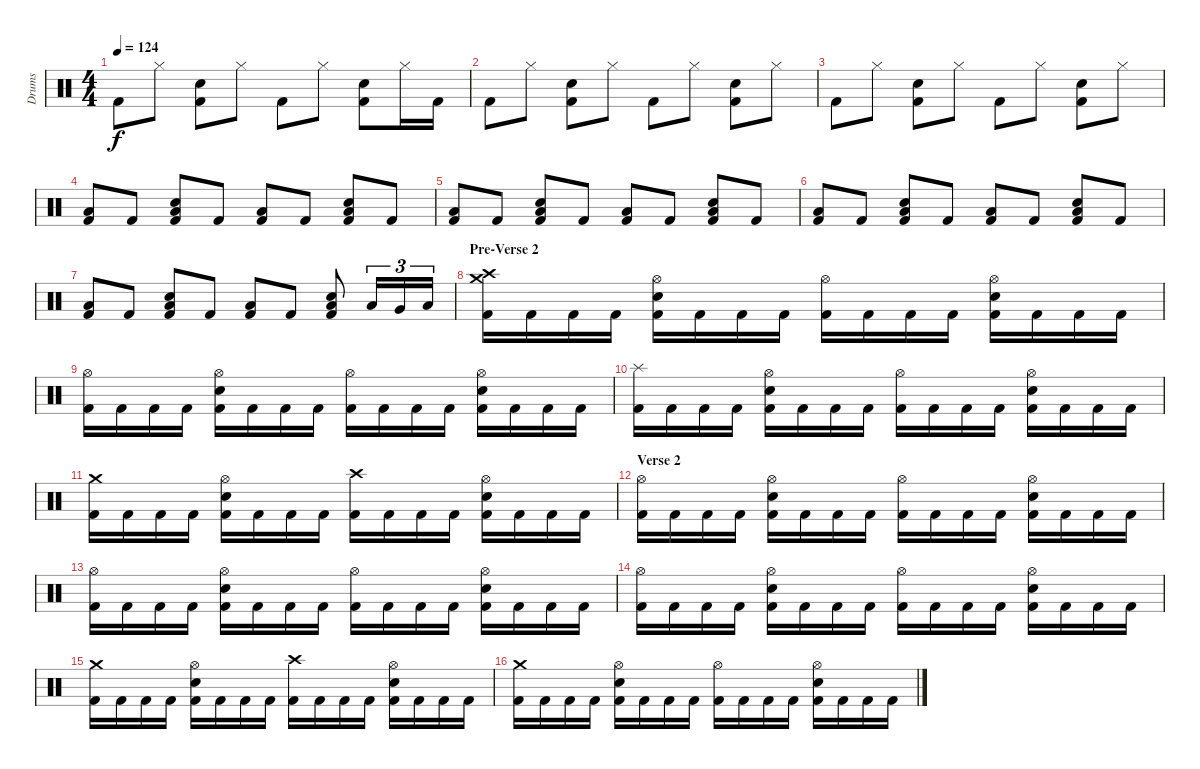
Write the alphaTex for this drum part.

\track ("Drums" "Drums") {instrument percussion}
\staff {score}
\articulation defaults
\ts (4 4)
\tempo 124
\clef neutral
\ks c "Kick (hit) 2".8{dy f} "Hi-Hat (closed)".8
("Electric Snare (hit)" "Kick (hit) 2").8 "Hi-Hat (closed)".8 "Kick (hit) 2".8 "Hi-Hat (closed)".8 ("Electric Snare (hit)" "Kick (hit) 2").8 "Hi-Hat (closed)".16 "Kick (hit) 2".16 |
"Kick (hit) 2".8 "Hi-Hat (closed)".8 ("Electric Snare (hit)" "Kick (hit) 2").8 "Hi-Hat (closed)".8 "Kick (hit) 2".8 "Hi-Hat (closed)".8 ("Electric Snare (hit)" "Kick (hit) 2").8 "Hi-Hat (closed)".8 |
"Kick (hit) 2".8 "Hi-Hat (closed)".8 ("Electric Snare (hit)" "Kick (hit) 2").8 "Hi-Hat (closed)".8 "Kick (hit) 2".8 "Hi-Hat (closed)".8 ("Electric Snare (hit)" "Kick (hit) 2").8 "Hi-Hat (closed)".8 |
("Low Floor Tom (hit)" "Kick (hit) 2").8 "Kick (hit) 2".8 ("Low Floor Tom (hit)" "Electric Snare (hit)" "Kick (hit) 2").8 "Kick (hit) 2".8 ("Low Floor Tom (hit)" "Kick (hit) 2").8 "Kick (hit) 2".8 ("Low Floor Tom (hit)" "Electric Snare (hit)" "Kick (hit) 2").8 "Kick (hit) 2".8 |
("Low Floor Tom (hit)" "Kick (hit) 2").8 "Kick (hit) 2".8 ("Low Floor Tom (hit)" "Electric Snare (hit)" "Kick (hit) 2").8 "Kick (hit) 2".8 ("Low Floor Tom (hit)" "Kick (hit) 2").8 "Kick (hit) 2".8 ("Low Floor Tom (hit)" "Electric Snare (hit)" "Kick (hit) 2").8 "Kick (hit) 2".8 |
("Low Floor Tom (hit)" "Kick (hit) 2").8 "Kick (hit) 2".8 ("Low Floor Tom (hit)" "Electric Snare (hit)" "Kick (hit) 2").8 "Kick (hit) 2".8 ("Low Floor Tom (hit)" "Kick (hit) 2").8 "Kick (hit) 2".8 ("Low Floor Tom (hit)" "Electric Snare (hit)" "Kick (hit) 2").8 "Kick (hit) 2".8 |
("Low Floor Tom (hit)" "Kick (hit) 2").8 "Kick (hit) 2".8 ("Low Floor Tom (hit)" "Electric Snare (hit)" "Kick (hit) 2").8 "Kick (hit) 2".8 ("Low Floor Tom (hit)" "Kick (hit) 2").8 "Kick (hit) 2".8 ("Low Floor Tom (hit)" "Electric Snare (hit)" "Kick (hit) 2").8 "Low Tom (hit)".16{tu (3 2)} "Very Low Tom (hit)".16{tu (3 2)} "Low Floor Tom (hit)".16{tu (3 2)} |
\section ("" "Pre-Verse 2")
("Crash high (hit)" "Crash medium (hit)" "Kick (hit) 2").16 "Kick (hit) 2".16 "Kick (hit) 2".16 "Kick (hit) 2".16 ("Hi-Hat (open)" "Electric Snare (hit)" "Kick (hit) 2").16 "Kick (hit) 2".16 "Kick (hit) 2".16 "Kick (hit) 2".16 ("Hi-Hat (open)" "Kick (hit) 2").16 "Kick (hit) 2".16 "Kick (hit) 2".16 "Kick (hit) 2".16 ("Hi-Hat (open)" "Electric Snare (hit)" "Kick (hit) 2").16 "Kick (hit) 2".16 "Kick (hit) 2".16 "Kick (hit) 2".16 |
("Hi-Hat (open)" "Kick (hit) 2").16 "Kick (hit) 2".16 "Kick (hit) 2".16 "Kick (hit) 2".16 ("Hi-Hat (open)" "Electric Snare (hit)" "Kick (hit) 2").16 "Kick (hit) 2".16 "Kick (hit) 2".16 "Kick (hit) 2".16 ("Hi-Hat (open)" "Kick (hit) 2").16 "Kick (hit) 2".16 "Kick (hit) 2".16 "Kick (hit) 2".16 ("Hi-Hat (open)" "Electric Snare (hit)" "Kick (hit) 2").16 "Kick (hit) 2".16 "Kick (hit) 2".16 "Kick (hit) 2".16 |
("Splash (hit)" "Kick (hit) 2").16 "Kick (hit) 2".16 "Kick (hit) 2".16 "Kick (hit) 2".16 ("Hi-Hat (open)" "Electric Snare (hit)" "Kick (hit) 2").16 "Kick (hit) 2".16 "Kick (hit) 2".16 "Kick (hit) 2".16 ("Hi-Hat (open)" "Kick (hit) 2").16 "Kick (hit) 2".16 "Kick (hit) 2".16 "Kick (hit) 2".16 ("Hi-Hat (open)" "Electric Snare (hit)" "Kick (hit) 2").16 "Kick (hit) 2".16 "Kick (hit) 2".16 "Kick (hit) 2".16 |
("Crash medium (hit)" "Kick (hit) 2").16 "Kick (hit) 2".16 "Kick (hit) 2".16 "Kick (hit) 2".16 ("Hi-Hat (open)" "Electric Snare (hit)" "Kick (hit) 2").16 "Kick (hit) 2".16 "Kick (hit) 2".16 "Kick (hit) 2".16 ("Crash high (hit)" "Kick (hit) 2").16 "Kick (hit) 2".16 "Kick (hit) 2".16 "Kick (hit) 2".16 ("Hi-Hat (open)" "Electric Snare (hit)" "Kick (hit) 2").16 "Kick (hit) 2".16 "Kick (hit) 2".16 "Kick (hit) 2".16 |
\section ("" "Verse 2")
("Hi-Hat (open)" "Kick (hit) 2").16 "Kick (hit) 2".16 "Kick (hit) 2".16 "Kick (hit) 2".16 ("Hi-Hat (open)" "Electric Snare (hit)" "Kick (hit) 2").16 "Kick (hit) 2".16 "Kick (hit) 2".16 "Kick (hit) 2".16 ("Hi-Hat (open)" "Kick (hit) 2").16 "Kick (hit) 2".16 "Kick (hit) 2".16 "Kick (hit) 2".16 ("Hi-Hat (open)" "Electric Snare (hit)" "Kick (hit) 2").16 "Kick (hit) 2".16 "Kick (hit) 2".16 "Kick (hit) 2".16 |
("Hi-Hat (open)" "Kick (hit) 2").16 "Kick (hit) 2".16 "Kick (hit) 2".16 "Kick (hit) 2".16 ("Hi-Hat (open)" "Electric Snare (hit)" "Kick (hit) 2").16 "Kick (hit) 2".16 "Kick (hit) 2".16 "Kick (hit) 2".16 ("Hi-Hat (open)" "Kick (hit) 2").16 "Kick (hit) 2".16 "Kick (hit) 2".16 "Kick (hit) 2".16 ("Hi-Hat (open)" "Electric Snare (hit)" "Kick (hit) 2").16 "Kick (hit) 2".16 "Kick (hit) 2".16 "Kick (hit) 2".16 |
("Hi-Hat (open)" "Kick (hit) 2").16 "Kick (hit) 2".16 "Kick (hit) 2".16 "Kick (hit) 2".16 ("Hi-Hat (open)" "Electric Snare (hit)" "Kick (hit) 2").16 "Kick (hit) 2".16 "Kick (hit) 2".16 "Kick (hit) 2".16 ("Hi-Hat (open)" "Kick (hit) 2").16 "Kick (hit) 2".16 "Kick (hit) 2".16 "Kick (hit) 2".16 ("Hi-Hat (open)" "Electric Snare (hit)" "Kick (hit) 2").16 "Kick (hit) 2".16 "Kick (hit) 2".16 "Kick (hit) 2".16 |
("Crash medium (hit)" "Kick (hit) 2").16 "Kick (hit) 2".16 "Kick (hit) 2".16 "Kick (hit) 2".16 ("Hi-Hat (open)" "Electric Snare (hit)" "Kick (hit) 2").16 "Kick (hit) 2".16 "Kick (hit) 2".16 "Kick (hit) 2".16 ("Crash high (hit)" "Kick (hit) 2").16 "Kick (hit) 2".16 "Kick (hit) 2".16 "Kick (hit) 2".16 ("Hi-Hat (open)" "Electric Snare (hit)" "Kick (hit) 2").16 "Kick (hit) 2".16 "Kick (hit) 2".16 "Kick (hit) 2".16 |
("Crash medium (hit)" "Kick (hit) 2").16 "Kick (hit) 2".16 "Kick (hit) 2".16 "Kick (hit) 2".16 ("Hi-Hat (open)" "Electric Snare (hit)" "Kick (hit) 2").16 "Kick (hit) 2".16 "Kick (hit) 2".16 "Kick (hit) 2".16 ("Hi-Hat (open)" "Kick (hit) 2").16 "Kick (hit) 2".16 "Kick (hit) 2".16 "Kick (hit) 2".16 ("Hi-Hat (open)" "Electric Snare (hit)" "Kick (hit) 2").16 "Kick (hit) 2".16 "Kick (hit) 2".16 "Kick (hit) 2".16
